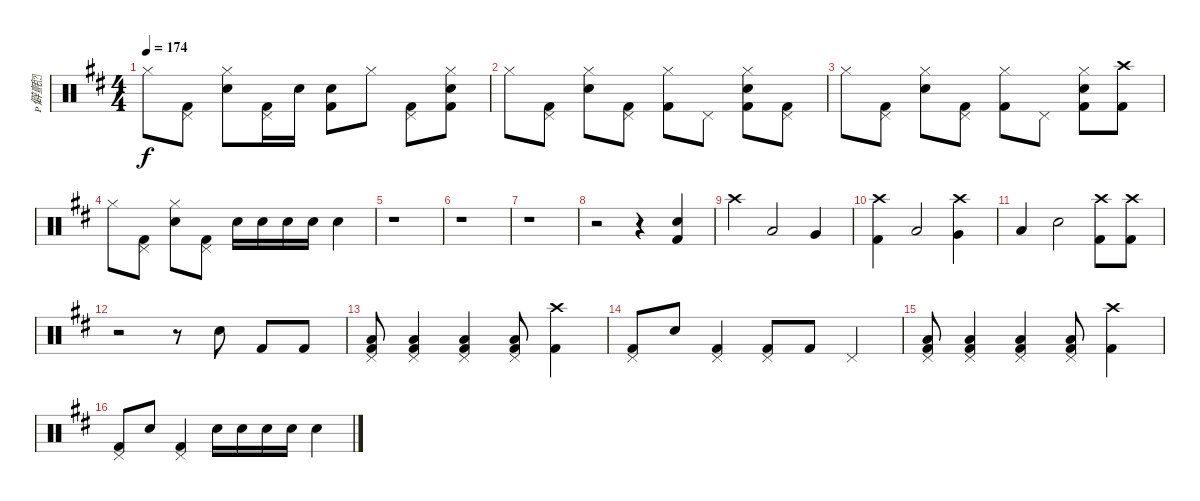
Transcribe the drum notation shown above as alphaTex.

\track ("僻氈" "僻氈") {instrument percussion}
\staff {score}
\articulation defaults
\ts (4 4)
\tempo 174
\clef neutral
\ks d "Hi-Hat (closed)".8{dy f}
("Pedal Hi-Hat (hit)" "Kick (hit) 2").8 ("Hi-Hat (closed)" "Electric Snare (hit)").8 ("Pedal Hi-Hat (hit)" "Kick (hit) 2").16 "Electric Snare (hit)".16 ("Electric Snare (hit)" "Kick (hit) 2").8 "Hi-Hat (closed)".8 ("Pedal Hi-Hat (hit)" "Kick (hit) 2").8 ("Hi-Hat (closed)" "Electric Snare (hit)" "Kick (hit) 2").8 |
"Hi-Hat (closed)".8 ("Pedal Hi-Hat (hit)" "Kick (hit) 2").8 ("Hi-Hat (closed)" "Electric Snare (hit)").8 ("Pedal Hi-Hat (hit)" "Kick (hit) 2").8 ("Hi-Hat (closed)" "Kick (hit) 2").8 "Pedal Hi-Hat (hit)".8 ("Hi-Hat (closed)" "Electric Snare (hit)" "Kick (hit) 2").8 ("Pedal Hi-Hat (hit)" "Kick (hit) 2").8 |
"Hi-Hat (closed)".8 ("Pedal Hi-Hat (hit)" "Kick (hit) 2").8 ("Hi-Hat (closed)" "Electric Snare (hit)").8 ("Pedal Hi-Hat (hit)" "Kick (hit) 2").8 ("Hi-Hat (closed)" "Kick (hit) 2").8 "Pedal Hi-Hat (hit)".8 ("Hi-Hat (closed)" "Electric Snare (hit)" "Kick (hit) 2").8 ("Crash high (hit)" "Kick (hit) 2").8 |
"Hi-Hat (closed)".8 ("Pedal Hi-Hat (hit)" "Kick (hit) 2").8 ("Hi-Hat (closed)" "Electric Snare (hit)").8 ("Pedal Hi-Hat (hit)" "Kick (hit) 2").8 "Electric Snare (hit)".16 "Electric Snare (hit)".16 "Electric Snare (hit)".16 "Electric Snare (hit)".16 "Electric Snare (hit)".4 |
r.1 |
r.1 |
r.1 |
r.2 r.4 ("Electric Snare (hit)" "Kick (hit) 2").4 |
"Crash high (hit)".4 "Low Tom (hit)".2 "Very Low Tom (hit)".4 |
("Crash high (hit)" "Kick (hit) 2").4 "Low Tom (hit)".2 ("Crash high (hit)" "Very Low Tom (hit)").4 |
"Low Tom (hit)".4 "Electric Snare (hit)".2 ("Crash high (hit)" "Kick (hit) 2").8 ("Crash high (hit)" "Kick (hit) 2").8 |
r.2 r.8 "Electric Snare (hit)".8 "Kick (hit) 2".8 "Kick (hit) 2".8 |
("Pedal Hi-Hat (hit)" "Low Tom (hit)" "Kick (hit) 2").8 ("Pedal Hi-Hat (hit)" "Low Tom (hit)" "Kick (hit) 2").4 ("Pedal Hi-Hat (hit)" "Low Tom (hit)" "Kick (hit) 2").4 ("Pedal Hi-Hat (hit)" "Low Tom (hit)" "Kick (hit) 2").8 ("Crash high (hit)" "Kick (hit) 2").4 |
("Pedal Hi-Hat (hit)" "Kick (hit) 2").8 "Electric Snare (hit)".8 ("Pedal Hi-Hat (hit)" "Kick (hit) 2").4 ("Pedal Hi-Hat (hit)" "Kick (hit) 2").8 "Kick (hit) 2".8 "Pedal Hi-Hat (hit)".4 |
("Pedal Hi-Hat (hit)" "Low Tom (hit)" "Kick (hit) 2").8 ("Pedal Hi-Hat (hit)" "Low Tom (hit)" "Kick (hit) 2").4 ("Pedal Hi-Hat (hit)" "Low Tom (hit)" "Kick (hit) 2").4 ("Pedal Hi-Hat (hit)" "Low Tom (hit)" "Kick (hit) 2").8 ("Crash high (hit)" "Kick (hit) 2").4 |
("Pedal Hi-Hat (hit)" "Kick (hit) 2").8 "Electric Snare (hit)".8 ("Pedal Hi-Hat (hit)" "Kick (hit) 2").4 "Electric Snare (hit)".16 "Electric Snare (hit)".16 "Electric Snare (hit)".16 "Electric Snare (hit)".16 "Electric Snare (hit)".4
